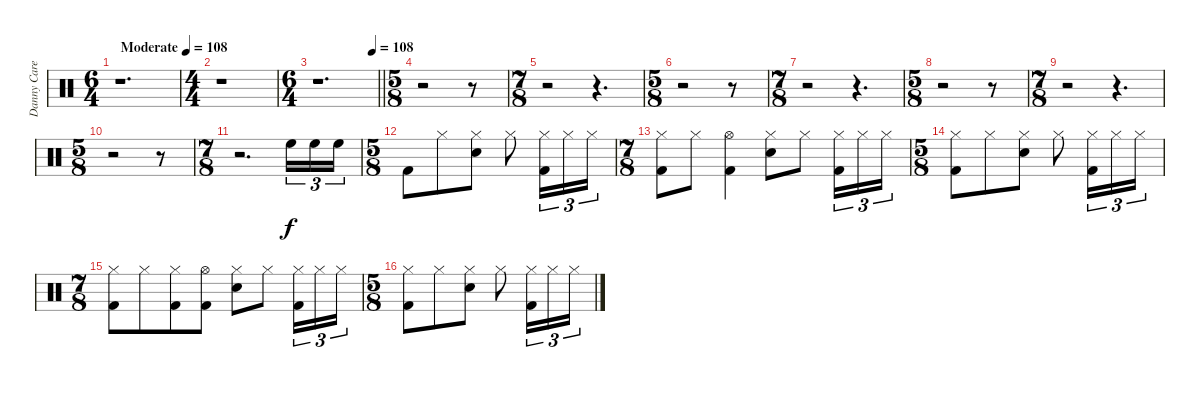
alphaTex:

\track ("Danny Carey" "Danny Care") {instrument percussion}
\staff {score}
\articulation defaults
\ts (6 4)
\tempo (108 "Moderate")
\tempo 67
\tempo (108 "Moderate")
\clef neutral
\ks c
r.1{d dy f} |
\ts (4 4)
r.1 |
\ts (6 4)
\tempo (108 0.9166666666666666)
\barLineRight lightlight
r.1{d} |
\ts (5 8)
r.2 r.8 |
\ts (7 8)
r.2 r.4{d} |
\ts (5 8)
r.2 r.8 |
\ts (7 8)
r.2 r.4{d} |
\ts (5 8)
r.2 r.8 |
\ts (7 8)
r.2 r.4{d} |
\ts (5 8)
r.2 r.8 |
\ts (7 8)
r.2{d} "High Floor Tom (hit)".16{tu (3 2)} "High Floor Tom (hit)".16{tu (3 2)} "High Floor Tom (hit)".16{tu (3 2)} |
\ts (5 8)
"Kick (hit) 2".8 "Hi-Hat (closed)".8 ("Hi-Hat (closed)" "Electric Snare (hit)").8 "Hi-Hat (closed)".8 ("Hi-Hat (closed)" "Kick (hit) 2").16{tu (3 2)} "Hi-Hat (closed)".16{tu (3 2)} "Hi-Hat (closed)".16{tu (3 2)} |
\ts (7 8)
("Hi-Hat (closed)" "Kick (hit) 2").8 "Hi-Hat (closed)".8 ("Hi-Hat (open)" "Kick (hit) 2").4 ("Hi-Hat (closed)" "Electric Snare (hit)").8 "Hi-Hat (closed)".8 ("Hi-Hat (closed)" "Kick (hit) 2").16{tu (3 2)} "Hi-Hat (closed)".16{tu (3 2)} "Hi-Hat (closed)".16{tu (3 2)} |
\ts (5 8)
("Hi-Hat (closed)" "Kick (hit) 2").8 "Hi-Hat (closed)".8 ("Hi-Hat (closed)" "Electric Snare (hit)").8 "Hi-Hat (closed)".8 ("Hi-Hat (closed)" "Kick (hit) 2").16{tu (3 2)} "Hi-Hat (closed)".16{tu (3 2)} "Hi-Hat (closed)".16{tu (3 2)} |
\ts (7 8)
("Hi-Hat (closed)" "Kick (hit) 2").8 "Hi-Hat (closed)".8 ("Hi-Hat (closed)" "Kick (hit) 2").8 ("Hi-Hat (open)" "Kick (hit) 2").8 ("Hi-Hat (closed)" "Electric Snare (hit)").8 "Hi-Hat (closed)".8 ("Hi-Hat (closed)" "Kick (hit) 2").16{tu (3 2)} "Hi-Hat (closed)".16{tu (3 2)} "Hi-Hat (closed)".16{tu (3 2)} |
\ts (5 8)
("Hi-Hat (closed)" "Kick (hit) 2").8 "Hi-Hat (closed)".8 ("Hi-Hat (closed)" "Electric Snare (hit)").8 "Hi-Hat (closed)".8 ("Hi-Hat (closed)" "Kick (hit) 2").16{tu (3 2)} "Hi-Hat (closed)".16{tu (3 2)} "Hi-Hat (closed)".16{tu (3 2)}
